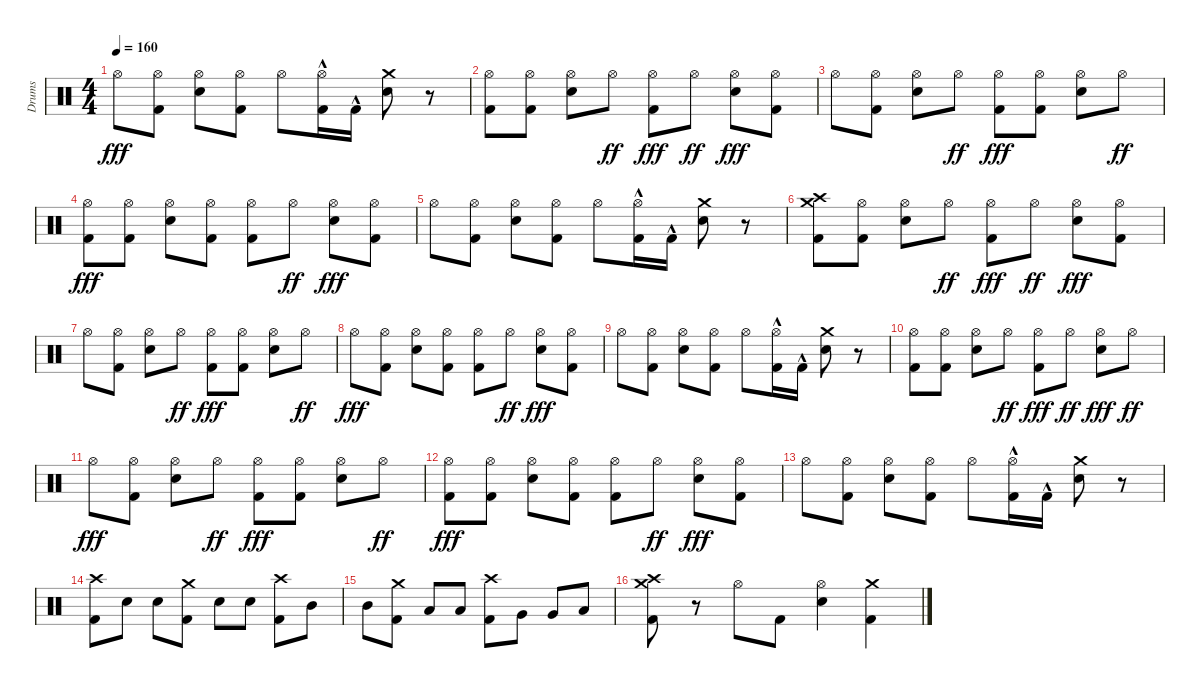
\track ("Drums" "Drums") {instrument percussion}
\staff {score}
\articulation defaults
\ts (4 4)
\tempo 160
\clef neutral
\ks c "Hi-Hat (open)".8{dy fff}
("Hi-Hat (open)" "Kick (hit) 2").8 ("Hi-Hat (open)" "Snare (hit) 2").8 ("Hi-Hat (open)" "Kick (hit) 2").8 "Hi-Hat (open)".8 ("Hi-Hat (open)"{hac} "Kick (hit) 2").16 "Kick (hit) 2"{hac}.16 ("Crash medium (hit)" "Snare (hit) 2").8 r.8 |
("Hi-Hat (open)" "Kick (hit) 2").8 ("Hi-Hat (open)" "Kick (hit) 2").8 ("Hi-Hat (open)" "Snare (hit) 2").8 "Hi-Hat (open)".8{dy ff} ("Hi-Hat (open)" "Kick (hit) 2").8{dy fff} "Hi-Hat (open)".8{dy ff} ("Hi-Hat (open)" "Snare (hit) 2").8{dy fff} ("Hi-Hat (open)" "Kick (hit) 2").8 |
"Hi-Hat (open)".8 ("Hi-Hat (open)" "Kick (hit) 2").8 ("Hi-Hat (open)" "Snare (hit) 2").8 "Hi-Hat (open)".8{dy ff} ("Hi-Hat (open)" "Kick (hit) 2").8{dy fff} ("Hi-Hat (open)" "Kick (hit) 2").8 ("Hi-Hat (open)" "Snare (hit) 2").8 "Hi-Hat (open)".8{dy ff} |
("Hi-Hat (open)" "Kick (hit) 2").8{dy fff} ("Hi-Hat (open)" "Kick (hit) 2").8 ("Hi-Hat (open)" "Snare (hit) 2").8 ("Hi-Hat (open)" "Kick (hit) 2").8 ("Hi-Hat (open)" "Kick (hit) 2").8 "Hi-Hat (open)".8{dy ff} ("Hi-Hat (open)" "Snare (hit) 2").8{dy fff} ("Hi-Hat (open)" "Kick (hit) 2").8 |
"Hi-Hat (open)".8 ("Hi-Hat (open)" "Kick (hit) 2").8 ("Hi-Hat (open)" "Snare (hit) 2").8 ("Hi-Hat (open)" "Kick (hit) 2").8 "Hi-Hat (open)".8 ("Hi-Hat (open)"{hac} "Kick (hit) 2").16 "Kick (hit) 2"{hac}.16 ("Crash medium (hit)" "Snare (hit) 2").8 r.8 |
("Crash high (hit)" "Crash medium (hit)" "Kick (hit) 2").8 ("Hi-Hat (open)" "Kick (hit) 2").8 ("Hi-Hat (open)" "Snare (hit) 2").8 "Hi-Hat (open)".8{dy ff} ("Hi-Hat (open)" "Kick (hit) 2").8{dy fff} "Hi-Hat (open)".8{dy ff} ("Hi-Hat (open)" "Snare (hit) 2").8{dy fff} ("Hi-Hat (open)" "Kick (hit) 2").8 |
"Hi-Hat (open)".8 ("Hi-Hat (open)" "Kick (hit) 2").8 ("Hi-Hat (open)" "Snare (hit) 2").8 "Hi-Hat (open)".8{dy ff} ("Hi-Hat (open)" "Kick (hit) 2").8{dy fff} ("Hi-Hat (open)" "Kick (hit) 2").8 ("Hi-Hat (open)" "Snare (hit) 2").8 "Hi-Hat (open)".8{dy ff} |
"Hi-Hat (open)".8{dy fff} ("Hi-Hat (open)" "Kick (hit) 2").8 ("Hi-Hat (open)" "Snare (hit) 2").8 ("Hi-Hat (open)" "Kick (hit) 2").8 ("Hi-Hat (open)" "Kick (hit) 2").8 "Hi-Hat (open)".8{dy ff} ("Hi-Hat (open)" "Snare (hit) 2").8{dy fff} ("Hi-Hat (open)" "Kick (hit) 2").8 |
"Hi-Hat (open)".8 ("Hi-Hat (open)" "Kick (hit) 2").8 ("Hi-Hat (open)" "Snare (hit) 2").8 ("Hi-Hat (open)" "Kick (hit) 2").8 "Hi-Hat (open)".8 ("Hi-Hat (open)"{hac} "Kick (hit) 2").16 "Kick (hit) 2"{hac}.16 ("Crash medium (hit)" "Snare (hit) 2").8 r.8 |
("Hi-Hat (open)" "Kick (hit) 2").8 ("Hi-Hat (open)" "Kick (hit) 2").8 ("Hi-Hat (open)" "Snare (hit) 2").8 "Hi-Hat (open)".8{dy ff} ("Hi-Hat (open)" "Kick (hit) 2").8{dy fff} "Hi-Hat (open)".8{dy ff} ("Hi-Hat (open)" "Snare (hit) 2").8{dy fff} "Hi-Hat (open)".8{dy ff} |
"Hi-Hat (open)".8{dy fff} ("Hi-Hat (open)" "Kick (hit) 2").8 ("Hi-Hat (open)" "Snare (hit) 2").8 "Hi-Hat (open)".8{dy ff} ("Hi-Hat (open)" "Kick (hit) 2").8{dy fff} ("Hi-Hat (open)" "Kick (hit) 2").8 ("Hi-Hat (open)" "Snare (hit) 2").8 "Hi-Hat (open)".8{dy ff} |
("Hi-Hat (open)" "Kick (hit) 2").8{dy fff} ("Hi-Hat (open)" "Kick (hit) 2").8 ("Hi-Hat (open)" "Snare (hit) 2").8 ("Hi-Hat (open)" "Kick (hit) 2").8 ("Hi-Hat (open)" "Kick (hit) 2").8 "Hi-Hat (open)".8{dy ff} ("Hi-Hat (open)" "Snare (hit) 2").8{dy fff} ("Hi-Hat (open)" "Kick (hit) 2").8 |
"Hi-Hat (open)".8 ("Hi-Hat (open)" "Kick (hit) 2").8 ("Hi-Hat (open)" "Snare (hit) 2").8 ("Hi-Hat (open)" "Kick (hit) 2").8 "Hi-Hat (open)".8 ("Hi-Hat (open)"{hac} "Kick (hit) 2").16 "Kick (hit) 2"{hac}.16 ("Crash medium (hit)" "Snare (hit) 2").8 r.8 |
("Kick (hit) 2" "Crash high (hit)").8 "Snare (hit) 2".8 "Snare (hit) 2".8 ("Crash medium (hit)" "Kick (hit) 2").8 "Snare (hit) 2".8 "Snare (hit) 2".8 ("Crash high (hit)" "Kick (hit) 2").8 "Mid Tom (hit)".8 |
"Mid Tom (hit)".8 ("Crash medium (hit)" "Kick (hit) 2").8 "Low Tom (hit)".8 "Low Tom (hit)".8 ("Crash high (hit)" "Kick (hit) 2").8 "Very Low Tom (hit)".8 "Very Low Tom (hit)".8 "Low Floor Tom (hit)".8 |
("Crash medium (hit)" "Crash high (hit)" "Kick (hit) 2").8 r.8 "Hi-Hat (open)".8 "Kick (hit) 2".8 ("Hi-Hat (open)" "Snare (hit) 2").4 ("Crash medium (hit)" "Kick (hit) 2").4
